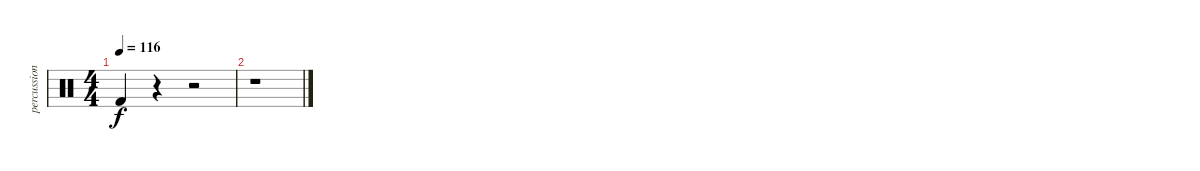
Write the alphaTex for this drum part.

\track ("percussion" "percussion") {instrument percussion}
\staff {score}
\articulation defaults
\ts (4 4)
\tempo 116
\clef neutral
\ks c "Kick (hit) 2".4{dy f}
r.4 r.2 |
r.1
